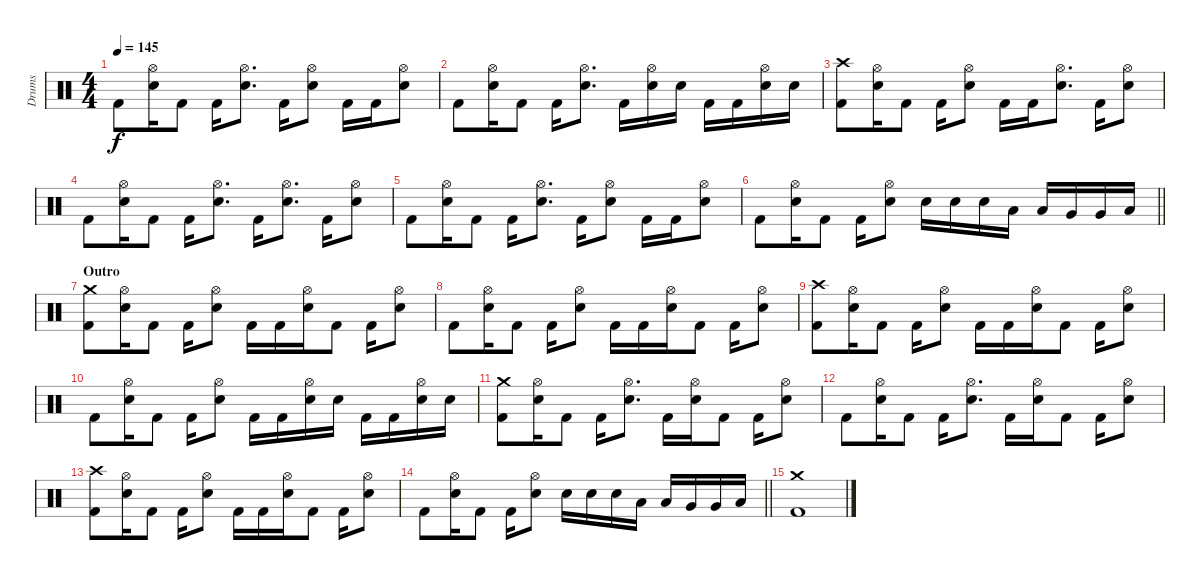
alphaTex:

\track ("Drums" "Drums") {instrument percussion}
\staff {score}
\articulation defaults
\ts (4 4)
\tempo 145
\clef neutral
\ks c "Kick (hit) 2".8{dy f}
("Hi-Hat (open)" "Electric Snare (hit)").16 "Kick (hit) 2".8 "Kick (hit) 2".16 ("Hi-Hat (open)" "Electric Snare (hit)").8{d} "Kick (hit) 2".16 ("Hi-Hat (open)" "Electric Snare (hit)").8 "Kick (hit) 2".16 "Kick (hit) 2".16 ("Hi-Hat (open)" "Electric Snare (hit)").8 |
"Kick (hit) 2".8 ("Hi-Hat (open)" "Electric Snare (hit)").16 "Kick (hit) 2".8 "Kick (hit) 2".16 ("Hi-Hat (open)" "Electric Snare (hit)").8{d} "Kick (hit) 2".16 ("Hi-Hat (open)" "Electric Snare (hit)").16 "Electric Snare (hit)".16 "Kick (hit) 2".16 "Kick (hit) 2".16 ("Hi-Hat (open)" "Electric Snare (hit)").16 "Electric Snare (hit)".16 |
("Crash high (hit)" "Kick (hit) 2").8 ("Hi-Hat (open)" "Electric Snare (hit)").16 "Kick (hit) 2".8 "Kick (hit) 2".16 ("Hi-Hat (open)" "Electric Snare (hit)").8 "Kick (hit) 2".16 "Kick (hit) 2".16 ("Hi-Hat (open)" "Electric Snare (hit)").8{d} "Kick (hit) 2".16 ("Hi-Hat (open)" "Electric Snare (hit)").8 |
"Kick (hit) 2".8 ("Hi-Hat (open)" "Electric Snare (hit)").16 "Kick (hit) 2".8 "Kick (hit) 2".16 ("Hi-Hat (open)" "Electric Snare (hit)").8{d} "Kick (hit) 2".16 ("Hi-Hat (open)" "Electric Snare (hit)").8{d} "Kick (hit) 2".16 ("Hi-Hat (open)" "Electric Snare (hit)").8 |
"Kick (hit) 2".8 ("Hi-Hat (open)" "Electric Snare (hit)").16 "Kick (hit) 2".8 "Kick (hit) 2".16 ("Hi-Hat (open)" "Electric Snare (hit)").8{d} "Kick (hit) 2".16 ("Hi-Hat (open)" "Electric Snare (hit)").8 "Kick (hit) 2".16 "Kick (hit) 2".16 ("Hi-Hat (open)" "Electric Snare (hit)").8 |
\barLineRight lightlight "Kick (hit) 2".8
("Hi-Hat (open)" "Electric Snare (hit)").16 "Kick (hit) 2".8 "Kick (hit) 2".16 ("Hi-Hat (open)" "Electric Snare (hit)").8 "Electric Snare (hit)".16 "Electric Snare (hit)".16 "Electric Snare (hit)".16 "Low Tom (hit)".16 "Low Tom (hit)".16 "Very Low Tom (hit)".16 "Very Low Tom (hit)".16 "Low Floor Tom (hit)".16 |
\section ("" "Outro")
("Crash medium (hit)" "Kick (hit) 2").8 ("Hi-Hat (open)" "Electric Snare (hit)").16 "Kick (hit) 2".8 "Kick (hit) 2".16 ("Hi-Hat (open)" "Electric Snare (hit)").8 "Kick (hit) 2".16 "Kick (hit) 2".16 ("Hi-Hat (open)" "Electric Snare (hit)").16 "Kick (hit) 2".8 "Kick (hit) 2".16 ("Hi-Hat (open)" "Electric Snare (hit)").8 |
"Kick (hit) 2".8 ("Hi-Hat (open)" "Electric Snare (hit)").16 "Kick (hit) 2".8 "Kick (hit) 2".16 ("Hi-Hat (open)" "Electric Snare (hit)").8 "Kick (hit) 2".16 "Kick (hit) 2".16 ("Hi-Hat (open)" "Electric Snare (hit)").16 "Kick (hit) 2".8 "Kick (hit) 2".16 ("Hi-Hat (open)" "Electric Snare (hit)").8 |
("Crash high (hit)" "Kick (hit) 2").8 ("Hi-Hat (open)" "Electric Snare (hit)").16 "Kick (hit) 2".8 "Kick (hit) 2".16 ("Hi-Hat (open)" "Electric Snare (hit)").8 "Kick (hit) 2".16 "Kick (hit) 2".16 ("Hi-Hat (open)" "Electric Snare (hit)").16 "Kick (hit) 2".8 "Kick (hit) 2".16 ("Hi-Hat (open)" "Electric Snare (hit)").8 |
"Kick (hit) 2".8 ("Hi-Hat (open)" "Electric Snare (hit)").16 "Kick (hit) 2".8 "Kick (hit) 2".16 ("Hi-Hat (open)" "Electric Snare (hit)").8 "Kick (hit) 2".16 "Kick (hit) 2".16 ("Hi-Hat (open)" "Electric Snare (hit)").16 "Electric Snare (hit)".16 "Kick (hit) 2".16 "Kick (hit) 2".16 ("Hi-Hat (open)" "Electric Snare (hit)").16 "Electric Snare (hit)".16 |
("Crash medium (hit)" "Kick (hit) 2").8 ("Hi-Hat (open)" "Electric Snare (hit)").16 "Kick (hit) 2".8 "Kick (hit) 2".16 ("Hi-Hat (open)" "Electric Snare (hit)").8{d} "Kick (hit) 2".16 ("Hi-Hat (open)" "Electric Snare (hit)").16 "Kick (hit) 2".8 "Kick (hit) 2".16 ("Hi-Hat (open)" "Electric Snare (hit)").8 |
"Kick (hit) 2".8 ("Hi-Hat (open)" "Electric Snare (hit)").16 "Kick (hit) 2".8 "Kick (hit) 2".16 ("Hi-Hat (open)" "Electric Snare (hit)").8{d} "Kick (hit) 2".16 ("Hi-Hat (open)" "Electric Snare (hit)").16 "Kick (hit) 2".8 "Kick (hit) 2".16 ("Hi-Hat (open)" "Electric Snare (hit)").8 |
("Crash high (hit)" "Kick (hit) 2").8 ("Hi-Hat (open)" "Electric Snare (hit)").16 "Kick (hit) 2".8 "Kick (hit) 2".16 ("Hi-Hat (open)" "Electric Snare (hit)").8 "Kick (hit) 2".16 "Kick (hit) 2".16 ("Hi-Hat (open)" "Electric Snare (hit)").16 "Kick (hit) 2".8 "Kick (hit) 2".16 ("Hi-Hat (open)" "Electric Snare (hit)").8 |
\barLineRight lightlight "Kick (hit) 2".8
("Hi-Hat (open)" "Electric Snare (hit)").16 "Kick (hit) 2".8 "Kick (hit) 2".16 ("Hi-Hat (open)" "Electric Snare (hit)").8 "Electric Snare (hit)".16 "Electric Snare (hit)".16 "Electric Snare (hit)".16 "Low Tom (hit)".16 "Low Tom (hit)".16 "Very Low Tom (hit)".16 "Very Low Tom (hit)".16 "Low Floor Tom (hit)".16 |
("Crash medium (hit)" "Kick (hit) 2").1
